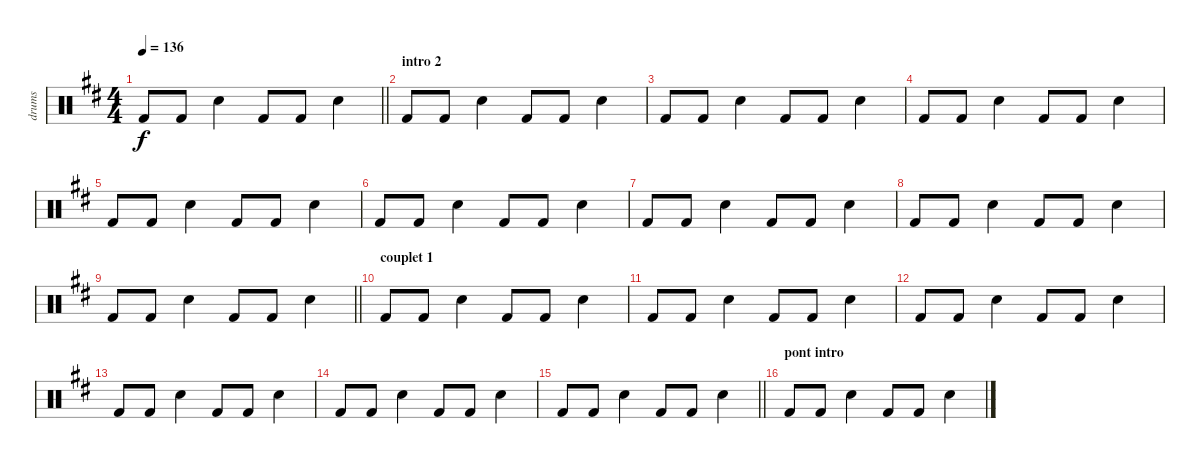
\track ("drums" "drums") {instrument percussion}
\staff {score}
\articulation defaults
\ts (4 4)
\tempo 136
\clef neutral
\barLineRight lightlight
\ks d "Kick (hit) 2".8{dy f} "Kick (hit) 2".8 "Electric Snare (hit)".4 "Kick (hit) 2".8 "Kick (hit) 2".8 "Electric Snare (hit)".4
|
\section ("" "intro 2")
"Kick (hit) 2".8 "Kick (hit) 2".8 "Electric Snare (hit)".4 "Kick (hit) 2".8 "Kick (hit) 2".8 "Electric Snare (hit)".4 |
"Kick (hit) 2".8 "Kick (hit) 2".8 "Electric Snare (hit)".4 "Kick (hit) 2".8 "Kick (hit) 2".8 "Electric Snare (hit)".4 |
"Kick (hit) 2".8 "Kick (hit) 2".8 "Electric Snare (hit)".4 "Kick (hit) 2".8 "Kick (hit) 2".8 "Electric Snare (hit)".4 |
"Kick (hit) 2".8 "Kick (hit) 2".8 "Electric Snare (hit)".4 "Kick (hit) 2".8 "Kick (hit) 2".8 "Electric Snare (hit)".4 |
"Kick (hit) 2".8 "Kick (hit) 2".8 "Electric Snare (hit)".4 "Kick (hit) 2".8 "Kick (hit) 2".8 "Electric Snare (hit)".4 |
"Kick (hit) 2".8 "Kick (hit) 2".8 "Electric Snare (hit)".4 "Kick (hit) 2".8 "Kick (hit) 2".8 "Electric Snare (hit)".4 |
"Kick (hit) 2".8 "Kick (hit) 2".8 "Electric Snare (hit)".4 "Kick (hit) 2".8 "Kick (hit) 2".8 "Electric Snare (hit)".4 |
\barLineRight lightlight "Kick (hit) 2".8 "Kick (hit) 2".8 "Electric Snare (hit)".4 "Kick (hit) 2".8 "Kick (hit) 2".8 "Electric Snare (hit)".4
|
\section ("" "couplet 1")
"Kick (hit) 2".8 "Kick (hit) 2".8 "Electric Snare (hit)".4 "Kick (hit) 2".8 "Kick (hit) 2".8 "Electric Snare (hit)".4 |
"Kick (hit) 2".8 "Kick (hit) 2".8 "Electric Snare (hit)".4 "Kick (hit) 2".8 "Kick (hit) 2".8 "Electric Snare (hit)".4 |
"Kick (hit) 2".8 "Kick (hit) 2".8 "Electric Snare (hit)".4 "Kick (hit) 2".8 "Kick (hit) 2".8 "Electric Snare (hit)".4 |
"Kick (hit) 2".8 "Kick (hit) 2".8 "Electric Snare (hit)".4 "Kick (hit) 2".8 "Kick (hit) 2".8 "Electric Snare (hit)".4 |
"Kick (hit) 2".8 "Kick (hit) 2".8 "Electric Snare (hit)".4 "Kick (hit) 2".8 "Kick (hit) 2".8 "Electric Snare (hit)".4 |
\barLineRight lightlight "Kick (hit) 2".8 "Kick (hit) 2".8 "Electric Snare (hit)".4 "Kick (hit) 2".8 "Kick (hit) 2".8 "Electric Snare (hit)".4
|
\section ("" "pont intro")
"Kick (hit) 2".8 "Kick (hit) 2".8 "Electric Snare (hit)".4 "Kick (hit) 2".8 "Kick (hit) 2".8 "Electric Snare (hit)".4
